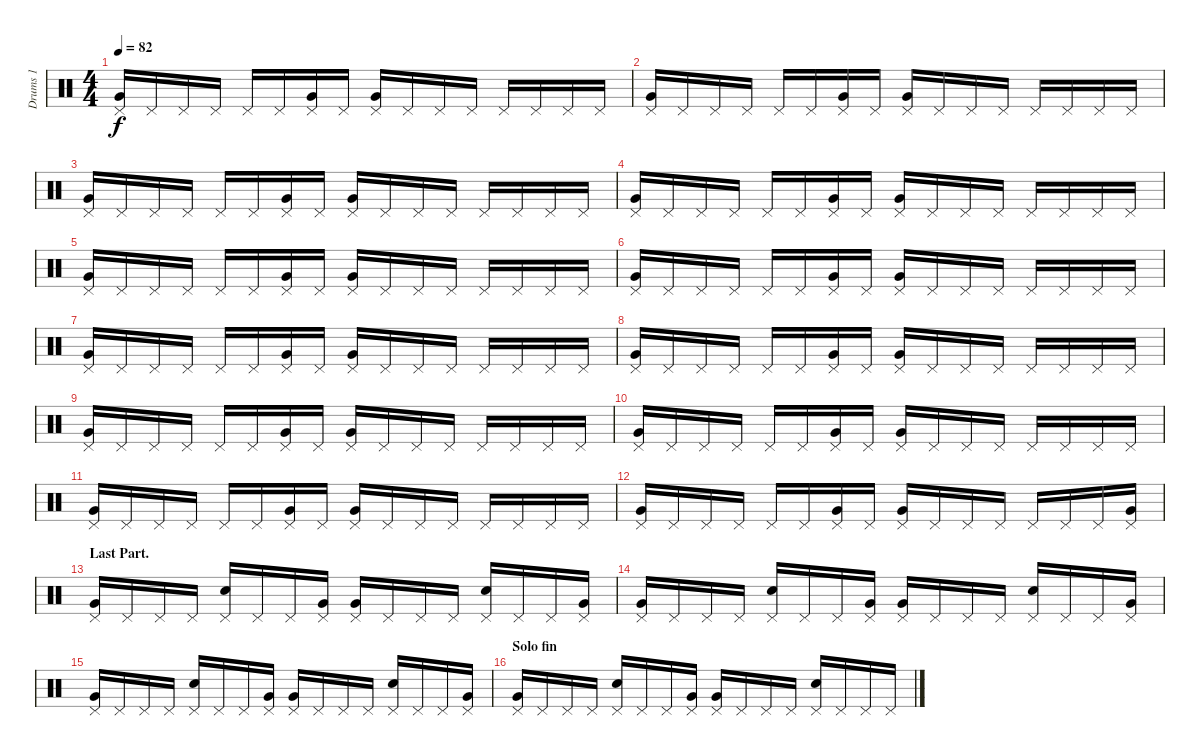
\track ("Drums 1" "Drums 1") {instrument percussion}
\staff {score}
\articulation defaults
\ts (4 4)
\tempo 82
\clef neutral
\ks c
("Pedal Hi-Hat (hit)" "Very Low Tom (hit)").16{dy f} "Pedal Hi-Hat (hit)".16 "Pedal Hi-Hat (hit)".16 "Pedal Hi-Hat (hit)".16 "Pedal Hi-Hat (hit)".16 "Pedal Hi-Hat (hit)".16 ("Pedal Hi-Hat (hit)" "Very Low Tom (hit)").16 "Pedal Hi-Hat (hit)".16 ("Pedal Hi-Hat (hit)" "Very Low Tom (hit)").16 "Pedal Hi-Hat (hit)".16 "Pedal Hi-Hat (hit)".16 "Pedal Hi-Hat (hit)".16 "Pedal Hi-Hat (hit)".16 "Pedal Hi-Hat (hit)".16 "Pedal Hi-Hat (hit)".16 "Pedal Hi-Hat (hit)".16 |
("Pedal Hi-Hat (hit)" "Very Low Tom (hit)").16 "Pedal Hi-Hat (hit)".16 "Pedal Hi-Hat (hit)".16 "Pedal Hi-Hat (hit)".16 "Pedal Hi-Hat (hit)".16 "Pedal Hi-Hat (hit)".16 ("Pedal Hi-Hat (hit)" "Very Low Tom (hit)").16 "Pedal Hi-Hat (hit)".16 ("Pedal Hi-Hat (hit)" "Very Low Tom (hit)").16 "Pedal Hi-Hat (hit)".16 "Pedal Hi-Hat (hit)".16 "Pedal Hi-Hat (hit)".16 "Pedal Hi-Hat (hit)".16 "Pedal Hi-Hat (hit)".16 "Pedal Hi-Hat (hit)".16 "Pedal Hi-Hat (hit)".16 |
("Pedal Hi-Hat (hit)" "Very Low Tom (hit)").16 "Pedal Hi-Hat (hit)".16 "Pedal Hi-Hat (hit)".16 "Pedal Hi-Hat (hit)".16 "Pedal Hi-Hat (hit)".16 "Pedal Hi-Hat (hit)".16 ("Pedal Hi-Hat (hit)" "Very Low Tom (hit)").16 "Pedal Hi-Hat (hit)".16 ("Pedal Hi-Hat (hit)" "Very Low Tom (hit)").16 "Pedal Hi-Hat (hit)".16 "Pedal Hi-Hat (hit)".16 "Pedal Hi-Hat (hit)".16 "Pedal Hi-Hat (hit)".16 "Pedal Hi-Hat (hit)".16 "Pedal Hi-Hat (hit)".16 "Pedal Hi-Hat (hit)".16 |
("Pedal Hi-Hat (hit)" "Very Low Tom (hit)").16 "Pedal Hi-Hat (hit)".16 "Pedal Hi-Hat (hit)".16 "Pedal Hi-Hat (hit)".16 "Pedal Hi-Hat (hit)".16 "Pedal Hi-Hat (hit)".16 ("Pedal Hi-Hat (hit)" "Very Low Tom (hit)").16 "Pedal Hi-Hat (hit)".16 ("Pedal Hi-Hat (hit)" "Very Low Tom (hit)").16 "Pedal Hi-Hat (hit)".16 "Pedal Hi-Hat (hit)".16 "Pedal Hi-Hat (hit)".16 "Pedal Hi-Hat (hit)".16 "Pedal Hi-Hat (hit)".16 "Pedal Hi-Hat (hit)".16 "Pedal Hi-Hat (hit)".16 |
("Pedal Hi-Hat (hit)" "Very Low Tom (hit)").16 "Pedal Hi-Hat (hit)".16 "Pedal Hi-Hat (hit)".16 "Pedal Hi-Hat (hit)".16 "Pedal Hi-Hat (hit)".16 "Pedal Hi-Hat (hit)".16 ("Pedal Hi-Hat (hit)" "Very Low Tom (hit)").16 "Pedal Hi-Hat (hit)".16 ("Pedal Hi-Hat (hit)" "Very Low Tom (hit)").16 "Pedal Hi-Hat (hit)".16 "Pedal Hi-Hat (hit)".16 "Pedal Hi-Hat (hit)".16 "Pedal Hi-Hat (hit)".16 "Pedal Hi-Hat (hit)".16 "Pedal Hi-Hat (hit)".16 "Pedal Hi-Hat (hit)".16 |
("Pedal Hi-Hat (hit)" "Very Low Tom (hit)").16 "Pedal Hi-Hat (hit)".16 "Pedal Hi-Hat (hit)".16 "Pedal Hi-Hat (hit)".16 "Pedal Hi-Hat (hit)".16 "Pedal Hi-Hat (hit)".16 ("Pedal Hi-Hat (hit)" "Very Low Tom (hit)").16 "Pedal Hi-Hat (hit)".16 ("Pedal Hi-Hat (hit)" "Very Low Tom (hit)").16 "Pedal Hi-Hat (hit)".16 "Pedal Hi-Hat (hit)".16 "Pedal Hi-Hat (hit)".16 "Pedal Hi-Hat (hit)".16 "Pedal Hi-Hat (hit)".16 "Pedal Hi-Hat (hit)".16 "Pedal Hi-Hat (hit)".16 |
("Pedal Hi-Hat (hit)" "Very Low Tom (hit)").16 "Pedal Hi-Hat (hit)".16 "Pedal Hi-Hat (hit)".16 "Pedal Hi-Hat (hit)".16 "Pedal Hi-Hat (hit)".16 "Pedal Hi-Hat (hit)".16 ("Pedal Hi-Hat (hit)" "Very Low Tom (hit)").16 "Pedal Hi-Hat (hit)".16 ("Pedal Hi-Hat (hit)" "Very Low Tom (hit)").16 "Pedal Hi-Hat (hit)".16 "Pedal Hi-Hat (hit)".16 "Pedal Hi-Hat (hit)".16 "Pedal Hi-Hat (hit)".16 "Pedal Hi-Hat (hit)".16 "Pedal Hi-Hat (hit)".16 "Pedal Hi-Hat (hit)".16 |
("Pedal Hi-Hat (hit)" "Very Low Tom (hit)").16 "Pedal Hi-Hat (hit)".16 "Pedal Hi-Hat (hit)".16 "Pedal Hi-Hat (hit)".16 "Pedal Hi-Hat (hit)".16 "Pedal Hi-Hat (hit)".16 ("Pedal Hi-Hat (hit)" "Very Low Tom (hit)").16 "Pedal Hi-Hat (hit)".16 ("Pedal Hi-Hat (hit)" "Very Low Tom (hit)").16 "Pedal Hi-Hat (hit)".16 "Pedal Hi-Hat (hit)".16 "Pedal Hi-Hat (hit)".16 "Pedal Hi-Hat (hit)".16 "Pedal Hi-Hat (hit)".16 "Pedal Hi-Hat (hit)".16 "Pedal Hi-Hat (hit)".16 |
("Pedal Hi-Hat (hit)" "Very Low Tom (hit)").16 "Pedal Hi-Hat (hit)".16 "Pedal Hi-Hat (hit)".16 "Pedal Hi-Hat (hit)".16 "Pedal Hi-Hat (hit)".16 "Pedal Hi-Hat (hit)".16 ("Pedal Hi-Hat (hit)" "Very Low Tom (hit)").16 "Pedal Hi-Hat (hit)".16 ("Pedal Hi-Hat (hit)" "Very Low Tom (hit)").16 "Pedal Hi-Hat (hit)".16 "Pedal Hi-Hat (hit)".16 "Pedal Hi-Hat (hit)".16 "Pedal Hi-Hat (hit)".16 "Pedal Hi-Hat (hit)".16 "Pedal Hi-Hat (hit)".16 "Pedal Hi-Hat (hit)".16 |
("Pedal Hi-Hat (hit)" "Very Low Tom (hit)").16 "Pedal Hi-Hat (hit)".16 "Pedal Hi-Hat (hit)".16 "Pedal Hi-Hat (hit)".16 "Pedal Hi-Hat (hit)".16 "Pedal Hi-Hat (hit)".16 ("Pedal Hi-Hat (hit)" "Very Low Tom (hit)").16 "Pedal Hi-Hat (hit)".16 ("Pedal Hi-Hat (hit)" "Very Low Tom (hit)").16 "Pedal Hi-Hat (hit)".16 "Pedal Hi-Hat (hit)".16 "Pedal Hi-Hat (hit)".16 "Pedal Hi-Hat (hit)".16 "Pedal Hi-Hat (hit)".16 "Pedal Hi-Hat (hit)".16 "Pedal Hi-Hat (hit)".16 |
("Pedal Hi-Hat (hit)" "Very Low Tom (hit)").16 "Pedal Hi-Hat (hit)".16 "Pedal Hi-Hat (hit)".16 "Pedal Hi-Hat (hit)".16 "Pedal Hi-Hat (hit)".16 "Pedal Hi-Hat (hit)".16 ("Pedal Hi-Hat (hit)" "Very Low Tom (hit)").16 "Pedal Hi-Hat (hit)".16 ("Pedal Hi-Hat (hit)" "Very Low Tom (hit)").16 "Pedal Hi-Hat (hit)".16 "Pedal Hi-Hat (hit)".16 "Pedal Hi-Hat (hit)".16 "Pedal Hi-Hat (hit)".16 "Pedal Hi-Hat (hit)".16 "Pedal Hi-Hat (hit)".16 "Pedal Hi-Hat (hit)".16 |
("Pedal Hi-Hat (hit)" "Very Low Tom (hit)").16 "Pedal Hi-Hat (hit)".16 "Pedal Hi-Hat (hit)".16 "Pedal Hi-Hat (hit)".16 "Pedal Hi-Hat (hit)".16 "Pedal Hi-Hat (hit)".16 ("Pedal Hi-Hat (hit)" "Very Low Tom (hit)").16 "Pedal Hi-Hat (hit)".16 ("Pedal Hi-Hat (hit)" "Very Low Tom (hit)").16 "Pedal Hi-Hat (hit)".16 "Pedal Hi-Hat (hit)".16 "Pedal Hi-Hat (hit)".16 "Pedal Hi-Hat (hit)".16 "Pedal Hi-Hat (hit)".16 "Pedal Hi-Hat (hit)".16 ("Pedal Hi-Hat (hit)" "Very Low Tom (hit)").16 |
\section ("" "Last Part.")
("Pedal Hi-Hat (hit)" "Very Low Tom (hit)").16 "Pedal Hi-Hat (hit)".16 "Pedal Hi-Hat (hit)".16 "Pedal Hi-Hat (hit)".16 ("Pedal Hi-Hat (hit)" "Electric Snare (hit)").16 "Pedal Hi-Hat (hit)".16 "Pedal Hi-Hat (hit)".16 ("Pedal Hi-Hat (hit)" "Very Low Tom (hit)").16 ("Pedal Hi-Hat (hit)" "Very Low Tom (hit)").16 "Pedal Hi-Hat (hit)".16 "Pedal Hi-Hat (hit)".16 "Pedal Hi-Hat (hit)".16 ("Pedal Hi-Hat (hit)" "Electric Snare (hit)").16 "Pedal Hi-Hat (hit)".16 "Pedal Hi-Hat (hit)".16 ("Pedal Hi-Hat (hit)" "Very Low Tom (hit)").16 |
("Pedal Hi-Hat (hit)" "Very Low Tom (hit)").16 "Pedal Hi-Hat (hit)".16 "Pedal Hi-Hat (hit)".16 "Pedal Hi-Hat (hit)".16 ("Pedal Hi-Hat (hit)" "Electric Snare (hit)").16 "Pedal Hi-Hat (hit)".16 "Pedal Hi-Hat (hit)".16 ("Pedal Hi-Hat (hit)" "Very Low Tom (hit)").16 ("Pedal Hi-Hat (hit)" "Very Low Tom (hit)").16 "Pedal Hi-Hat (hit)".16 "Pedal Hi-Hat (hit)".16 "Pedal Hi-Hat (hit)".16 ("Pedal Hi-Hat (hit)" "Electric Snare (hit)").16 "Pedal Hi-Hat (hit)".16 "Pedal Hi-Hat (hit)".16 ("Pedal Hi-Hat (hit)" "Very Low Tom (hit)").16 |
("Pedal Hi-Hat (hit)" "Very Low Tom (hit)").16 "Pedal Hi-Hat (hit)".16 "Pedal Hi-Hat (hit)".16 "Pedal Hi-Hat (hit)".16 ("Pedal Hi-Hat (hit)" "Electric Snare (hit)").16 "Pedal Hi-Hat (hit)".16 "Pedal Hi-Hat (hit)".16 ("Pedal Hi-Hat (hit)" "Very Low Tom (hit)").16 ("Pedal Hi-Hat (hit)" "Very Low Tom (hit)").16 "Pedal Hi-Hat (hit)".16 "Pedal Hi-Hat (hit)".16 "Pedal Hi-Hat (hit)".16 ("Pedal Hi-Hat (hit)" "Electric Snare (hit)").16 "Pedal Hi-Hat (hit)".16 "Pedal Hi-Hat (hit)".16 ("Pedal Hi-Hat (hit)" "Very Low Tom (hit)").16 |
\section ("" "Solo fin")
("Pedal Hi-Hat (hit)" "Very Low Tom (hit)").16 "Pedal Hi-Hat (hit)".16 "Pedal Hi-Hat (hit)".16 "Pedal Hi-Hat (hit)".16 ("Pedal Hi-Hat (hit)" "Electric Snare (hit)").16 "Pedal Hi-Hat (hit)".16 "Pedal Hi-Hat (hit)".16 ("Pedal Hi-Hat (hit)" "Very Low Tom (hit)").16 ("Pedal Hi-Hat (hit)" "Very Low Tom (hit)").16 "Pedal Hi-Hat (hit)".16 "Pedal Hi-Hat (hit)".16 "Pedal Hi-Hat (hit)".16 ("Pedal Hi-Hat (hit)" "Electric Snare (hit)").16 "Pedal Hi-Hat (hit)".16 "Pedal Hi-Hat (hit)".16 "Pedal Hi-Hat (hit)".16
